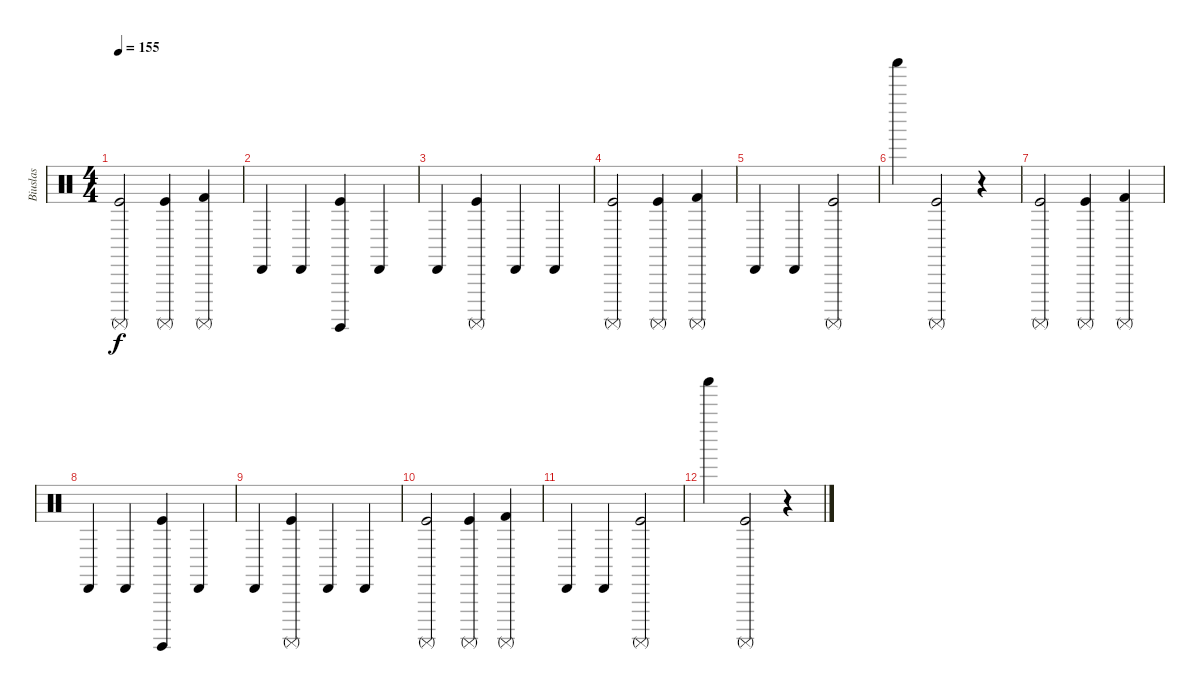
\track ("Biuslas" "Biuslas") {instrument percussion}
\staff {score}
\articulation defaults
\ts (4 4)
\tempo 155
\clef neutral
\ks c
("Surdo (mute)" "Kick (hit)").2{dy f} ("Surdo (mute)" "Kick (hit)").4 ("Surdo (mute)" "Kick (hit) 2").4 |
"Cabasa (hit)".4 "Cabasa (hit)".4 ("Surdo (hit)" "Kick (hit)").4 "Cabasa (hit)".4 |
"Cabasa (hit)".4 ("Surdo (mute)" "Kick (hit)").4 "Cabasa (hit)".4 "Cabasa (hit)".4 |
("Surdo (mute)" "Kick (hit)").2 ("Surdo (mute)" "Kick (hit)").4 ("Surdo (mute)" "Kick (hit) 2").4 |
"Cabasa (hit)".4 "Cabasa (hit)".4 ("Surdo (mute)" "Kick (hit)").2 |
"Shaker (hit)".4 ("Surdo (mute)" "Kick (hit)").2 r.4 |
("Surdo (mute)" "Kick (hit)").2 ("Surdo (mute)" "Kick (hit)").4 ("Surdo (mute)" "Kick (hit) 2").4 |
"Cabasa (hit)".4 "Cabasa (hit)".4 ("Surdo (hit)" "Kick (hit)").4 "Cabasa (hit)".4 |
"Cabasa (hit)".4 ("Surdo (mute)" "Kick (hit)").4 "Cabasa (hit)".4 "Cabasa (hit)".4 |
("Surdo (mute)" "Kick (hit)").2 ("Surdo (mute)" "Kick (hit)").4 ("Surdo (mute)" "Kick (hit) 2").4 |
"Cabasa (hit)".4 "Cabasa (hit)".4 ("Surdo (mute)" "Kick (hit)").2 |
"Shaker (hit)".4 ("Surdo (mute)" "Kick (hit)").2 r.4
